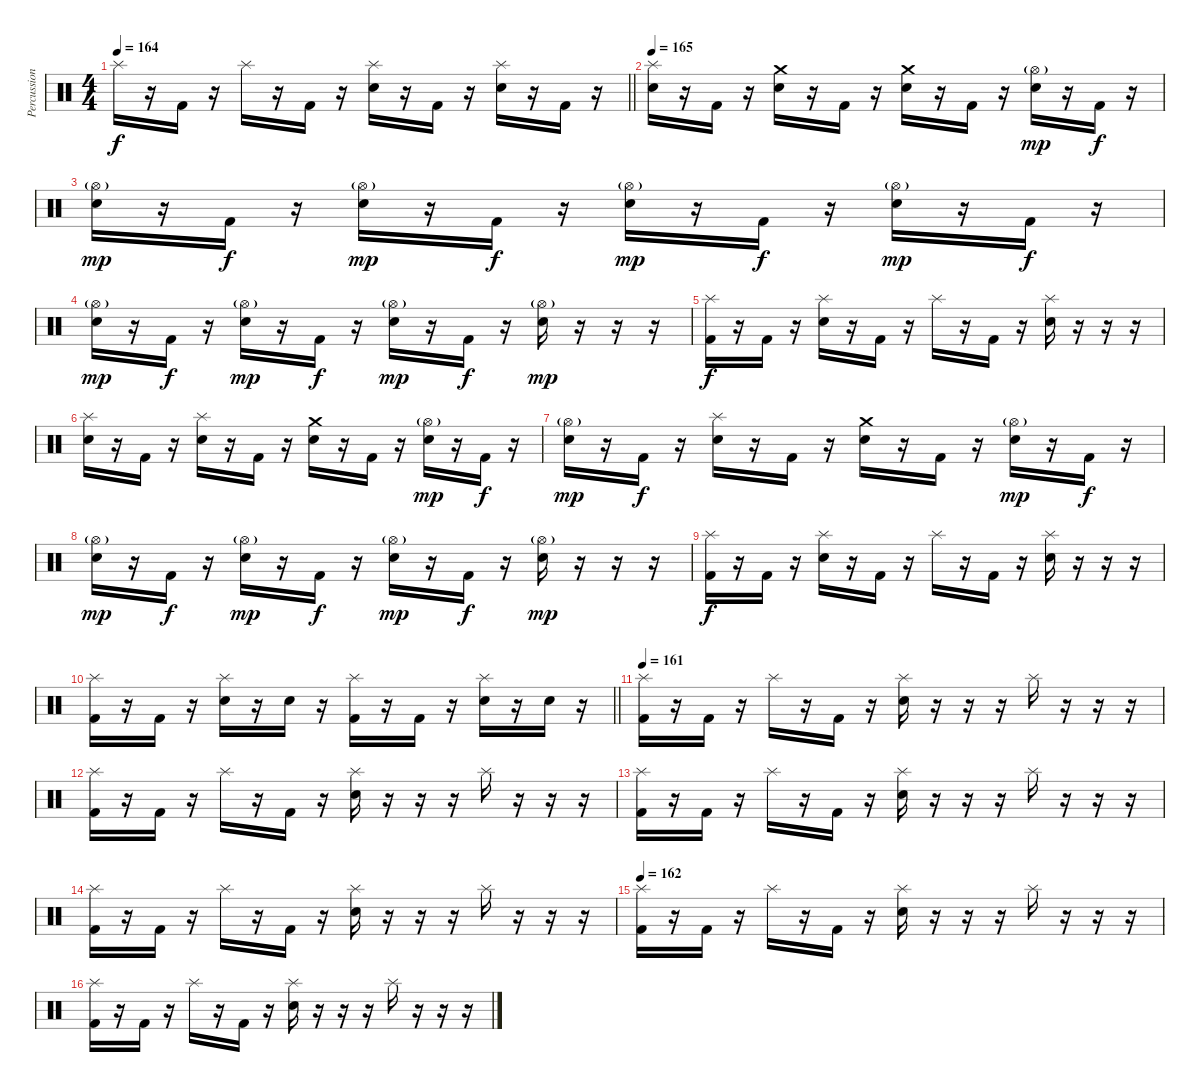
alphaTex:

\track ("Percussion" "Percussion") {instrument percussion}
\staff {score}
\articulation defaults
\ts (4 4)
\tempo 164
\clef neutral
\barLineRight lightlight
\ks c "Splash (hit)".16{dy f}
r.16 "Kick (hit) 2".16 r.16 "Splash (hit)".16 r.16 "Kick (hit) 2".16 r.16 ("Splash (hit)" "Electric Snare (hit)").16 r.16 "Kick (hit) 2".16 r.16 ("Splash (hit)" "Electric Snare (hit)").16 r.16 "Kick (hit) 2".16 r.16 |
\section ("" "")
\tempo 165
("Splash (hit)" "Electric Snare (hit)").16 r.16 "Kick (hit) 2".16 r.16 ("Crash medium (hit)" "Electric Snare (hit)").16 r.16 "Kick (hit) 2".16 r.16 ("Crash medium (hit)" "Electric Snare (hit)").16 r.16 "Kick (hit) 2".16 r.16 ("Hi-Hat (open)"{g} "Electric Snare (hit)").16{dy mp} r.16 "Kick (hit) 2".16{dy f} r.16 |
("Hi-Hat (open)"{g} "Electric Snare (hit)").16{dy mp} r.16 "Kick (hit) 2".16{dy f} r.16 ("Hi-Hat (open)"{g} "Electric Snare (hit)").16{dy mp} r.16 "Kick (hit) 2".16{dy f} r.16 ("Hi-Hat (open)"{g} "Electric Snare (hit)").16{dy mp} r.16 "Kick (hit) 2".16{dy f} r.16 ("Hi-Hat (open)"{g} "Electric Snare (hit)").16{dy mp} r.16 "Kick (hit) 2".16{dy f} r.16 |
("Hi-Hat (open)"{g} "Electric Snare (hit)").16{dy mp} r.16 "Kick (hit) 2".16{dy f} r.16 ("Hi-Hat (open)"{g} "Electric Snare (hit)").16{dy mp} r.16 "Kick (hit) 2".16{dy f} r.16 ("Hi-Hat (open)"{g} "Electric Snare (hit)").16{dy mp} r.16 "Kick (hit) 2".16{dy f} r.16 ("Hi-Hat (open)"{g} "Electric Snare (hit)").16{dy mp} r.16 r.16 r.16 |
("Splash (hit)" "Kick (hit) 2").16{dy f} r.16 "Kick (hit) 2".16 r.16 ("Splash (hit)" "Electric Snare (hit)").16 r.16 "Kick (hit) 2".16 r.16 "Splash (hit)".16 r.16 "Kick (hit) 2".16 r.16 ("Splash (hit)" "Electric Snare (hit)").16 r.16 r.16 r.16 |
("Splash (hit)" "Electric Snare (hit)").16 r.16 "Kick (hit) 2".16 r.16 ("Splash (hit)" "Electric Snare (hit)").16 r.16 "Kick (hit) 2".16 r.16 ("Crash medium (hit)" "Electric Snare (hit)").16 r.16 "Kick (hit) 2".16 r.16 ("Hi-Hat (open)"{g} "Electric Snare (hit)").16{dy mp} r.16 "Kick (hit) 2".16{dy f} r.16 |
("Hi-Hat (open)"{g} "Electric Snare (hit)").16{dy mp} r.16 "Kick (hit) 2".16{dy f} r.16 ("Splash (hit)" "Electric Snare (hit)").16 r.16 "Kick (hit) 2".16 r.16 ("Crash medium (hit)" "Electric Snare (hit)").16 r.16 "Kick (hit) 2".16 r.16 ("Hi-Hat (open)"{g} "Electric Snare (hit)").16{dy mp} r.16 "Kick (hit) 2".16{dy f} r.16 |
("Hi-Hat (open)"{g} "Electric Snare (hit)").16{dy mp} r.16 "Kick (hit) 2".16{dy f} r.16 ("Hi-Hat (open)"{g} "Electric Snare (hit)").16{dy mp} r.16 "Kick (hit) 2".16{dy f} r.16 ("Hi-Hat (open)"{g} "Electric Snare (hit)").16{dy mp} r.16 "Kick (hit) 2".16{dy f} r.16 ("Hi-Hat (open)"{g} "Electric Snare (hit)").16{dy mp} r.16 r.16 r.16 |
("Splash (hit)" "Kick (hit) 2").16{dy f} r.16 "Kick (hit) 2".16 r.16 ("Splash (hit)" "Electric Snare (hit)").16 r.16 "Kick (hit) 2".16 r.16 "Splash (hit)".16 r.16 "Kick (hit) 2".16 r.16 ("Splash (hit)" "Electric Snare (hit)").16 r.16 r.16 r.16 |
\barLineRight lightlight
("Splash (hit)" "Kick (hit) 2").16 r.16 "Kick (hit) 2".16 r.16 ("Splash (hit)" "Electric Snare (hit)").16 r.16 "Electric Snare (hit)".16 r.16 ("Splash (hit)" "Kick (hit) 2").16 r.16 "Kick (hit) 2".16 r.16 ("Splash (hit)" "Electric Snare (hit)").16 r.16 "Electric Snare (hit)".16 r.16 |
\section ("" "")
\tempo 161
("Splash (hit)" "Kick (hit) 2").16 r.16 "Kick (hit) 2".16 r.16 "Splash (hit)".16 r.16 "Kick (hit) 2".16 r.16 ("Splash (hit)" "Electric Snare (hit)").16 r.16 r.16 r.16 "Splash (hit)".16 r.16 r.16 r.16 |
("Splash (hit)" "Kick (hit) 2").16 r.16 "Kick (hit) 2".16 r.16 "Splash (hit)".16 r.16 "Kick (hit) 2".16 r.16 ("Splash (hit)" "Electric Snare (hit)").16 r.16 r.16 r.16 "Splash (hit)".16 r.16 r.16 r.16 |
("Splash (hit)" "Kick (hit) 2").16 r.16 "Kick (hit) 2".16 r.16 "Splash (hit)".16 r.16 "Kick (hit) 2".16 r.16 ("Splash (hit)" "Electric Snare (hit)").16 r.16 r.16 r.16 "Splash (hit)".16 r.16 r.16 r.16 |
("Splash (hit)" "Kick (hit) 2").16 r.16 "Kick (hit) 2".16 r.16 "Splash (hit)".16 r.16 "Kick (hit) 2".16 r.16 ("Splash (hit)" "Electric Snare (hit)").16 r.16 r.16 r.16 "Splash (hit)".16 r.16 r.16 r.16 |
\tempo 162
("Splash (hit)" "Kick (hit) 2").16 r.16 "Kick (hit) 2".16 r.16 "Splash (hit)".16 r.16 "Kick (hit) 2".16 r.16 ("Splash (hit)" "Electric Snare (hit)").16 r.16 r.16 r.16 "Splash (hit)".16 r.16 r.16 r.16 |
("Splash (hit)" "Kick (hit) 2").16 r.16 "Kick (hit) 2".16 r.16 "Splash (hit)".16 r.16 "Kick (hit) 2".16 r.16 ("Splash (hit)" "Electric Snare (hit)").16 r.16 r.16 r.16 "Splash (hit)".16 r.16 r.16 r.16
